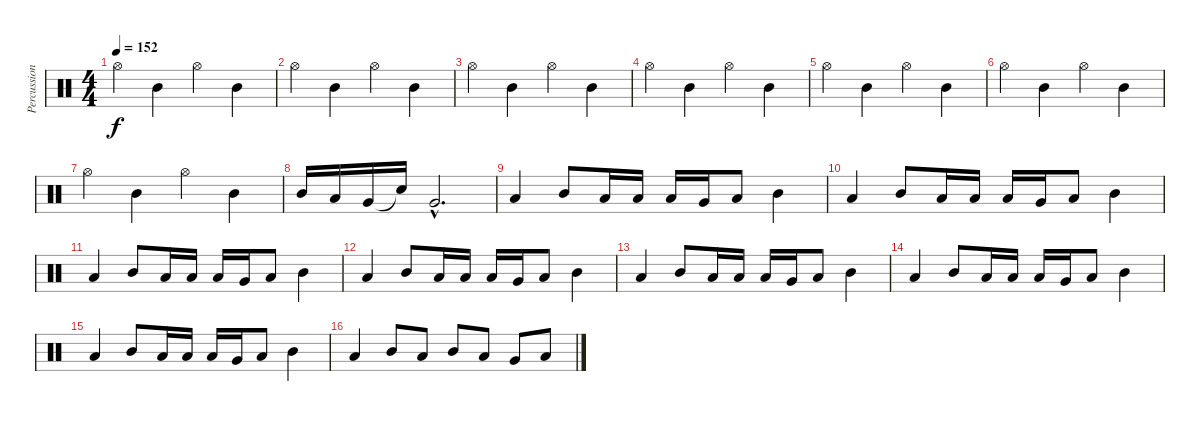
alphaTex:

\track ("Percussion" "Percussion") {instrument percussion}
\staff {score}
\articulation defaults
\ts (4 4)
\tempo 152
\clef neutral
\ks c "Hi-Hat (open)".4{dy f} "Mid Tom (hit)".4 "Hi-Hat (open)".4 "Mid Tom (hit)".4
|
"Hi-Hat (open)".4 "Mid Tom (hit)".4 "Hi-Hat (open)".4 "Mid Tom (hit)".4 |
"Hi-Hat (open)".4 "Mid Tom (hit)".4 "Hi-Hat (open)".4 "Mid Tom (hit)".4 |
"Hi-Hat (open)".4 "Mid Tom (hit)".4 "Hi-Hat (open)".4 "Mid Tom (hit)".4 |
"Hi-Hat (open)".4 "Mid Tom (hit)".4 "Hi-Hat (open)".4 "Mid Tom (hit)".4 |
"Hi-Hat (open)".4 "Mid Tom (hit)".4 "Hi-Hat (open)".4 "Mid Tom (hit)".4 |
"Hi-Hat (open)".4 "Mid Tom (hit)".4 "Hi-Hat (open)".4 "Mid Tom (hit)".4 |
"Mid Tom (hit)".16 "Low Tom (hit)".16 "Very Low Tom (hit)".16 "Snare (hit)"{t}.16 "Very Low Tom (hit)"{hac}.2{d} |
"Low Tom (hit)".4 "Mid Tom (hit)".8 "Low Tom (hit)".16 "Low Tom (hit)".16 "Low Tom (hit)".16 "Very Low Tom (hit)".16 "Low Floor Tom (hit)".8 "Mid Tom (hit)".4 |
"Low Tom (hit)".4 "Mid Tom (hit)".8 "Low Tom (hit)".16 "Low Tom (hit)".16 "Low Tom (hit)".16 "Very Low Tom (hit)".16 "Low Floor Tom (hit)".8 "Mid Tom (hit)".4 |
"Low Tom (hit)".4 "Mid Tom (hit)".8 "Low Tom (hit)".16 "Low Tom (hit)".16 "Low Tom (hit)".16 "Very Low Tom (hit)".16 "Low Floor Tom (hit)".8 "Mid Tom (hit)".4 |
"Low Tom (hit)".4 "Mid Tom (hit)".8 "Low Tom (hit)".16 "Low Tom (hit)".16 "Low Tom (hit)".16 "Very Low Tom (hit)".16 "Low Floor Tom (hit)".8 "Mid Tom (hit)".4 |
"Low Tom (hit)".4 "Mid Tom (hit)".8 "Low Tom (hit)".16 "Low Tom (hit)".16 "Low Tom (hit)".16 "Very Low Tom (hit)".16 "Low Floor Tom (hit)".8 "Mid Tom (hit)".4 |
"Low Tom (hit)".4 "Mid Tom (hit)".8 "Low Tom (hit)".16 "Low Tom (hit)".16 "Low Tom (hit)".16 "Very Low Tom (hit)".16 "Low Floor Tom (hit)".8 "Mid Tom (hit)".4 |
"Low Tom (hit)".4 "Mid Tom (hit)".8 "Low Tom (hit)".16 "Low Tom (hit)".16 "Low Tom (hit)".16 "Very Low Tom (hit)".16 "Low Floor Tom (hit)".8 "Mid Tom (hit)".4 |
"Low Tom (hit)".4 "Mid Tom (hit)".8 "Low Tom (hit)".8 "Mid Tom (hit)".8 "Low Tom (hit)".8 "Very Low Tom (hit)".8 "Low Floor Tom (hit)".8
